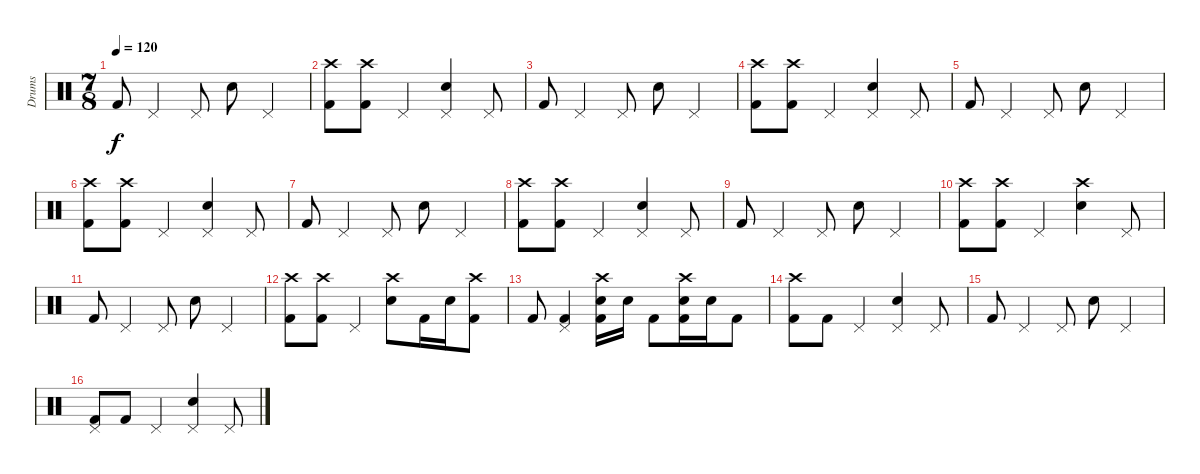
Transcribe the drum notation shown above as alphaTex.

\track ("Drums" "Drums") {instrument percussion}
\staff {score}
\articulation defaults
\ts (7 8)
\tempo 120
\clef neutral
\ks c "Kick (hit) 2".8{dy f} "Pedal Hi-Hat (hit)".4 "Pedal Hi-Hat (hit)".8 "Electric Snare (hit)".8 "Pedal Hi-Hat (hit)".4
|
("Crash high (hit)" "Kick (hit) 2").8 ("Crash high (hit)" "Kick (hit) 2").8 "Pedal Hi-Hat (hit)".4 ("Pedal Hi-Hat (hit)" "Electric Snare (hit)").4 "Pedal Hi-Hat (hit)".8 |
"Kick (hit) 2".8 "Pedal Hi-Hat (hit)".4 "Pedal Hi-Hat (hit)".8 "Electric Snare (hit)".8 "Pedal Hi-Hat (hit)".4 |
("Crash high (hit)" "Kick (hit) 2").8 ("Crash high (hit)" "Kick (hit) 2").8 "Pedal Hi-Hat (hit)".4 ("Pedal Hi-Hat (hit)" "Electric Snare (hit)").4 "Pedal Hi-Hat (hit)".8 |
"Kick (hit) 2".8 "Pedal Hi-Hat (hit)".4 "Pedal Hi-Hat (hit)".8 "Electric Snare (hit)".8 "Pedal Hi-Hat (hit)".4 |
("Crash high (hit)" "Kick (hit) 2").8 ("Crash high (hit)" "Kick (hit) 2").8 "Pedal Hi-Hat (hit)".4 ("Pedal Hi-Hat (hit)" "Electric Snare (hit)").4 "Pedal Hi-Hat (hit)".8 |
"Kick (hit) 2".8 "Pedal Hi-Hat (hit)".4 "Pedal Hi-Hat (hit)".8 "Electric Snare (hit)".8 "Pedal Hi-Hat (hit)".4 |
("Crash high (hit)" "Kick (hit) 2").8 ("Crash high (hit)" "Kick (hit) 2").8 "Pedal Hi-Hat (hit)".4 ("Pedal Hi-Hat (hit)" "Electric Snare (hit)").4 "Pedal Hi-Hat (hit)".8 |
"Kick (hit) 2".8 "Pedal Hi-Hat (hit)".4 "Pedal Hi-Hat (hit)".8 "Electric Snare (hit)".8 "Pedal Hi-Hat (hit)".4 |
("Crash high (hit)" "Kick (hit) 2").8 ("Crash high (hit)" "Kick (hit) 2").8 "Pedal Hi-Hat (hit)".4 ("Crash high (hit)" "Electric Snare (hit)").4 "Pedal Hi-Hat (hit)".8 |
"Kick (hit) 2".8 "Pedal Hi-Hat (hit)".4 "Pedal Hi-Hat (hit)".8 "Electric Snare (hit)".8 "Pedal Hi-Hat (hit)".4 |
("Crash high (hit)" "Kick (hit) 2").8 ("Crash high (hit)" "Kick (hit) 2").8 "Pedal Hi-Hat (hit)".4 ("Crash high (hit)" "Electric Snare (hit)").8 "Kick (hit) 2".16 "Electric Snare (hit)".16 ("Crash high (hit)" "Kick (hit) 2").8 |
"Kick (hit) 2".8 ("Pedal Hi-Hat (hit)" "Kick (hit) 2").4 ("Crash high (hit)" "Kick (hit) 2" "Electric Snare (hit)").16 "Electric Snare (hit)".16 "Kick (hit) 2".8 ("Crash high (hit)" "Kick (hit) 2" "Electric Snare (hit)").16 "Electric Snare (hit)".16 "Kick (hit) 2".8 |
("Crash high (hit)" "Kick (hit) 2").8 "Kick (hit) 2".8 "Pedal Hi-Hat (hit)".4 ("Pedal Hi-Hat (hit)" "Electric Snare (hit)").4 "Pedal Hi-Hat (hit)".8 |
"Kick (hit) 2".8 "Pedal Hi-Hat (hit)".4 "Pedal Hi-Hat (hit)".8 "Electric Snare (hit)".8 "Pedal Hi-Hat (hit)".4 |
("Pedal Hi-Hat (hit)" "Kick (hit) 2").8 "Kick (hit) 2".8 "Pedal Hi-Hat (hit)".4 ("Pedal Hi-Hat (hit)" "Electric Snare (hit)").4 "Pedal Hi-Hat (hit)".8
